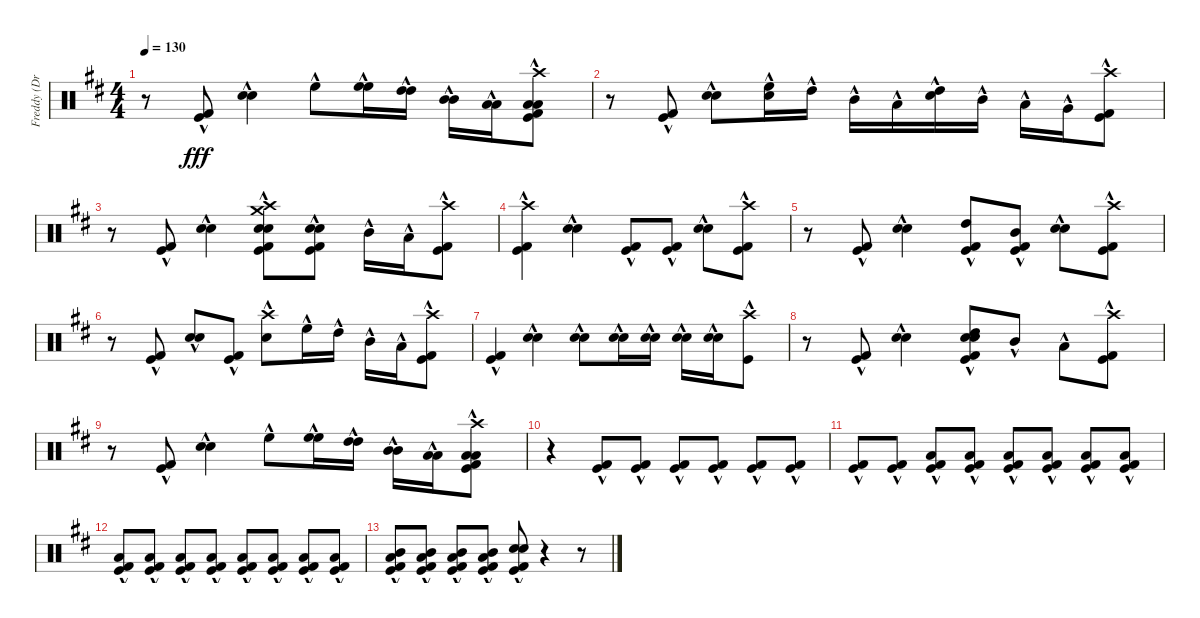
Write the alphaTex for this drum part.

\track ("Freddy (Drums)" "Freddy (Dr") {instrument percussion}
\staff {score}
\articulation defaults
\ts (4 4)
\tempo 130
\clef neutral
\ks d
r.8{dy fff} ("Kick (hit)"{hac} "Kick (hit) 2"{hac}).8 ("Electric Snare (hit)"{hac} "Snare (hit) 2"{hac}).4 "High Floor Tom (hit)"{hac}.8 ("High Floor Tom (hit)"{hac} "High Floor Tom (hit)"{hac}).16 ("High Tom (hit)"{hac} "High Tom (hit)"{hac}).16 ("Mid Tom (hit)"{hac} "Mid Tom (hit)"{hac}).16 ("Low Tom (hit)"{hac} "Low Tom (hit)"{hac}).16 ("Kick (hit)"{hac} "Low Floor Tom (hit)"{hac} "Low Floor Tom (hit)"{hac} "Kick (hit) 2"{hac} "Crash high (hit)"{hac}).8 |
r.8 ("Kick (hit)"{hac} "Kick (hit) 2"{hac}).8 ("Snare (hit) 2"{hac} "Electric Snare (hit)"{hac}).8 ("High Floor Tom (hit)"{hac} "Snare (hit) 2"{hac}).16 "High Tom (hit)"{hac}.16 "Mid Tom (hit)"{hac}.16 "Low Tom (hit)"{hac}.16 ("High Tom (hit)"{hac} "Snare (hit) 2"{hac}).16 "Mid Tom (hit)"{hac}.16 "Low Tom (hit)"{hac}.16 "Very Low Tom (hit)"{hac}.16 ("Crash high (hit)"{hac} "Kick (hit)"{hac} "Kick (hit) 2"{hac}).8 |
r.8 ("Kick (hit) 2"{hac} "Kick (hit)"{hac}).8 ("Snare (hit) 2"{hac} "Electric Snare (hit)"{hac}).4 ("Snare (hit) 2"{hac} "Electric Snare (hit)"{hac} "Crash medium (hit)"{hac} "Crash high (hit)"{hac} "Kick (hit)"{hac} "Kick (hit) 2"{hac}).8 ("Electric Snare (hit)"{hac} "Kick (hit)"{hac} "Kick (hit) 2"{hac} "Snare (hit) 2"{hac}).8 "Mid Tom (hit)"{hac}.16 "Low Tom (hit)"{hac}.16 ("Crash high (hit)"{hac} "Kick (hit)"{hac} "Kick (hit) 2"{hac}).8 |
("Crash high (hit)"{hac} "Kick (hit)"{hac} "Kick (hit) 2"{hac}).4 ("Electric Snare (hit)"{hac} "Snare (hit) 2"{hac}).4 ("Kick (hit)"{hac} "Kick (hit) 2"{hac}).8 ("Kick (hit)"{hac} "Kick (hit) 2"{hac}).8 ("Hand Clap (hit)"{hac} "Electric Snare (hit)"{hac}).8 ("Crash high (hit)"{hac} "Kick (hit)"{hac} "Kick (hit) 2"{hac}).8 |
r.8 ("Kick (hit)"{hac} "Kick (hit) 2"{hac}).8 ("Electric Snare (hit)"{hac} "Snare (hit) 2"{hac}).4 ("High Tom (hit)"{hac} "Kick (hit)"{hac} "Kick (hit) 2"{hac}).8 ("Mid Tom (hit)"{hac} "Kick (hit)"{hac} "Kick (hit) 2"{hac}).8 ("Snare (hit) 2"{hac} "Electric Snare (hit)"{hac}).8 ("Crash high (hit)"{hac} "Kick (hit)"{hac} "Kick (hit) 2"{hac}).8 |
r.8 ("Kick (hit)"{hac} "Kick (hit) 2"{hac}).8 ("Electric Snare (hit)"{hac} "Snare (hit) 2"{hac}).8 ("Kick (hit)"{hac} "Kick (hit) 2"{hac}).8 ("Snare (hit) 2"{hac} "Crash high (hit)"{hac}).8 "High Floor Tom (hit)"{hac}.16 "High Tom (hit)"{hac}.16 "Mid Tom (hit)"{hac}.16 "Low Tom (hit)"{hac}.16 ("Kick (hit)"{hac} "Kick (hit) 2"{hac} "Crash high (hit)"{hac}).8 |
("Kick (hit)"{hac} "Kick (hit) 2"{hac}).4 ("Snare (hit) 2"{hac} "Electric Snare (hit)"{hac}).4 ("Snare (hit) 2"{hac} "Electric Snare (hit)"{hac}).8 ("Snare (hit) 2"{hac} "Electric Snare (hit)"{hac}).16 ("Snare (hit) 2"{hac} "Hand Clap (hit)"{hac}).16 ("Snare (hit) 2"{hac} "Electric Snare (hit)"{hac}).16 ("Snare (hit) 2"{hac} "Electric Snare (hit)"{hac}).16 ("Crash high (hit)"{hac} "Kick (hit)"{hac}).8 |
r.8 ("Kick (hit)"{hac} "Kick (hit) 2"{hac}).8 ("Electric Snare (hit)"{hac} "Snare (hit) 2"{hac}).4 ("Kick (hit)"{hac} "Kick (hit) 2"{hac} "Snare (hit) 2"{hac} "Electric Snare (hit)"{hac} "High Tom (hit)"{hac}).8 "Mid Tom (hit)"{hac}.8 "Low Tom (hit)"{hac}.8 ("Crash high (hit)"{hac} "Kick (hit)"{hac} "Kick (hit) 2"{hac}).8 |
r.8 ("Kick (hit)"{hac} "Kick (hit) 2"{hac}).8 ("Electric Snare (hit)"{hac} "Snare (hit) 2"{hac}).4 "High Floor Tom (hit)"{hac}.8 ("High Floor Tom (hit)"{hac} "High Floor Tom (hit)"{hac}).16 ("High Tom (hit)"{hac} "High Tom (hit)"{hac}).16 ("Mid Tom (hit)"{hac} "Mid Tom (hit)"{hac}).16 ("Low Tom (hit)"{hac} "Low Tom (hit)"{hac}).16 ("Kick (hit)"{hac} "Low Floor Tom (hit)"{hac} "Low Floor Tom (hit)"{hac} "Kick (hit) 2"{hac} "Crash high (hit)"{hac}).8 |
r.4 ("Kick (hit) 2"{hac} "Kick (hit)"{hac}).8 ("Kick (hit) 2"{hac} "Kick (hit)"{hac}).8 ("Kick (hit) 2"{hac} "Kick (hit)"{hac}).8 ("Kick (hit) 2"{hac} "Kick (hit)"{hac}).8 ("Kick (hit) 2"{hac} "Kick (hit)"{hac}).8 ("Kick (hit) 2"{hac} "Kick (hit)"{hac}).8 |
("Kick (hit) 2"{hac} "Kick (hit)"{hac}).8 ("Kick (hit) 2"{hac} "Kick (hit)"{hac}).8 ("Low Tom (hit)"{hac} "Kick (hit) 2"{hac} "Kick (hit)"{hac}).8 ("Low Tom (hit)"{hac} "Kick (hit) 2"{hac} "Kick (hit)"{hac}).8 ("Low Tom (hit)"{hac} "Kick (hit) 2"{hac} "Kick (hit)"{hac}).8 ("Low Tom (hit)"{hac} "Kick (hit) 2"{hac} "Kick (hit)"{hac}).8 ("Low Tom (hit)"{hac} "Kick (hit) 2"{hac} "Kick (hit)"{hac}).8 ("Low Tom (hit)"{hac} "Kick (hit) 2"{hac} "Kick (hit)"{hac}).8 |
("Low Tom (hit)"{hac} "Kick (hit) 2"{hac} "Kick (hit)"{hac}).8 ("Low Tom (hit)"{hac} "Kick (hit) 2"{hac} "Kick (hit)"{hac}).8 ("Low Tom (hit)"{hac} "Kick (hit) 2"{hac} "Kick (hit)"{hac}).8 ("Low Tom (hit)"{hac} "Kick (hit) 2"{hac} "Kick (hit)"{hac}).8 ("Low Tom (hit)"{hac} "Kick (hit) 2"{hac} "Kick (hit)"{hac}).8 ("Low Tom (hit)"{hac} "Kick (hit) 2"{hac} "Kick (hit)"{hac}).8 ("Low Tom (hit)"{hac} "Kick (hit) 2"{hac} "Kick (hit)"{hac}).8 ("Low Tom (hit)"{hac} "Kick (hit) 2"{hac} "Kick (hit)"{hac}).8 |
("Mid Tom (hit)"{hac} "Low Tom (hit)"{hac} "Kick (hit) 2"{hac} "Kick (hit)"{hac}).8 ("Mid Tom (hit)"{hac} "Low Tom (hit)"{hac} "Kick (hit) 2"{hac} "Kick (hit)"{hac}).8 ("Mid Tom (hit)"{hac} "Low Tom (hit)"{hac} "Kick (hit) 2"{hac} "Kick (hit)"{hac}).8 ("Mid Tom (hit)"{hac} "Low Tom (hit)"{hac} "Kick (hit) 2"{hac} "Kick (hit)"{hac}).8 ("Electric Snare (hit)"{hac} "Snare (hit) 2"{hac} "Kick (hit) 2"{hac} "Kick (hit)"{hac}).8 r.4 r.8
